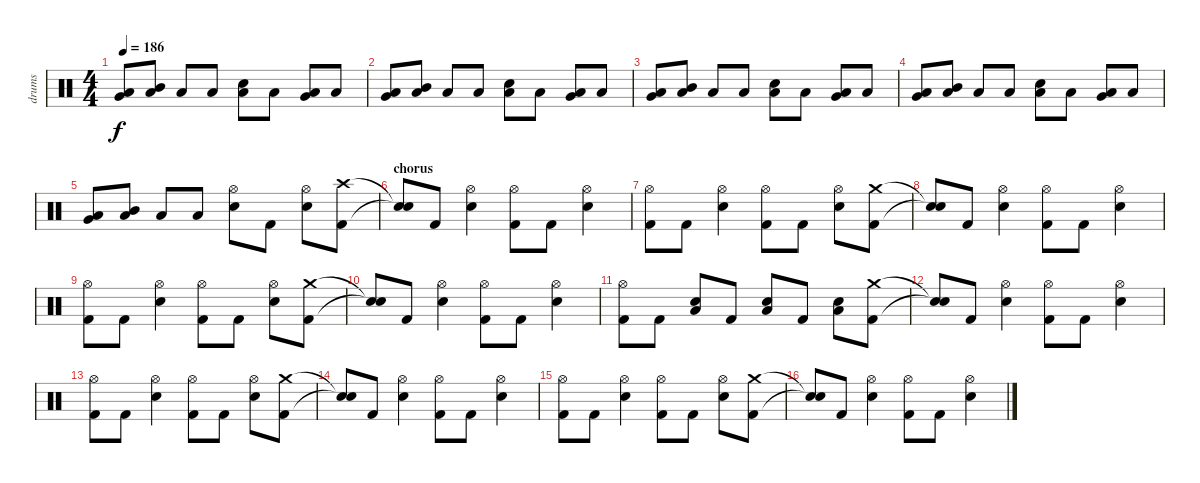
\track ("drums" "drums") {instrument percussion}
\staff {score}
\articulation defaults
\ts (4 4)
\tempo 186
\clef neutral
\ks c
("Low Tom (hit)" "Very Low Tom (hit)").8{dy f} ("Mid Tom (hit)" "Low Tom (hit)").8 "Low Tom (hit)".8 "Low Floor Tom (hit)".8 ("Low Tom (hit)" "Electric Snare (hit)").8 "Low Floor Tom (hit)".8 ("Low Tom (hit)" "Very Low Tom (hit)").8 "Low Tom (hit)".8 |
("Low Tom (hit)" "Very Low Tom (hit)").8 ("Mid Tom (hit)" "Low Tom (hit)").8 "Low Tom (hit)".8 "Low Floor Tom (hit)".8 ("Low Tom (hit)" "Electric Snare (hit)").8 "Low Floor Tom (hit)".8 ("Low Tom (hit)" "Very Low Tom (hit)").8 "Low Tom (hit)".8 |
("Low Tom (hit)" "Very Low Tom (hit)").8 ("Mid Tom (hit)" "Low Tom (hit)").8 "Low Tom (hit)".8 "Low Floor Tom (hit)".8 ("Low Tom (hit)" "Electric Snare (hit)").8 "Low Floor Tom (hit)".8 ("Low Tom (hit)" "Very Low Tom (hit)").8 "Low Tom (hit)".8 |
("Low Tom (hit)" "Very Low Tom (hit)").8 ("Mid Tom (hit)" "Low Tom (hit)").8 "Low Tom (hit)".8 "Low Floor Tom (hit)".8 ("Low Tom (hit)" "Electric Snare (hit)").8 "Low Floor Tom (hit)".8 ("Low Tom (hit)" "Very Low Tom (hit)").8 "Low Tom (hit)".8 |
("Low Tom (hit)" "Very Low Tom (hit)").8 ("Mid Tom (hit)" "Low Tom (hit)").8 "Low Tom (hit)".8 "Low Floor Tom (hit)".8 ("Hi-Hat (open)" "Electric Snare (hit)").8 "Kick (hit) 2".8 ("Hi-Hat (open)" "Electric Snare (hit)").8 ("Crash high (hit)" "Kick (hit) 2").8 |
\section ("" "chorus")
("Snare (hit)"{t} "Snare (hit)"{t}).8 "Kick (hit) 2".8 ("Hi-Hat (open)" "Electric Snare (hit)").4 ("Hi-Hat (open)" "Kick (hit) 2").8 "Kick (hit) 2".8 ("Hi-Hat (open)" "Electric Snare (hit)").4 |
("Hi-Hat (open)" "Kick (hit) 2").8 "Kick (hit) 2".8 ("Hi-Hat (open)" "Electric Snare (hit)").4 ("Hi-Hat (open)" "Kick (hit) 2").8 "Kick (hit) 2".8 ("Hi-Hat (open)" "Electric Snare (hit)").8 ("Crash medium (hit)" "Kick (hit) 2").8 |
("Snare (hit)"{t} "Snare (hit)"{t}).8 "Kick (hit) 2".8 ("Hi-Hat (open)" "Electric Snare (hit)").4 ("Hi-Hat (open)" "Kick (hit) 2").8 "Kick (hit) 2".8 ("Hi-Hat (open)" "Electric Snare (hit)").4 |
("Hi-Hat (open)" "Kick (hit) 2").8 "Kick (hit) 2".8 ("Hi-Hat (open)" "Electric Snare (hit)").4 ("Hi-Hat (open)" "Kick (hit) 2").8 "Kick (hit) 2".8 ("Hi-Hat (open)" "Electric Snare (hit)").8 ("Crash medium (hit)" "Kick (hit) 2").8 |
("Snare (hit)"{t} "Snare (hit)"{t}).8 "Kick (hit) 2".8 ("Hi-Hat (open)" "Electric Snare (hit)").4 ("Hi-Hat (open)" "Kick (hit) 2").8 "Kick (hit) 2".8 ("Hi-Hat (open)" "Electric Snare (hit)").4 |
("Hi-Hat (open)" "Kick (hit) 2").8 "Kick (hit) 2".8 ("Low Floor Tom (hit)" "Electric Snare (hit)").8 "Kick (hit) 2".8 ("Low Floor Tom (hit)" "Electric Snare (hit)").8 "Kick (hit) 2".8 ("Low Floor Tom (hit)" "Electric Snare (hit)").8 ("Crash medium (hit)" "Kick (hit) 2").8 |
("Snare (hit)"{t} "Snare (hit)"{t}).8 "Kick (hit) 2".8 ("Hi-Hat (open)" "Electric Snare (hit)").4 ("Hi-Hat (open)" "Kick (hit) 2").8 "Kick (hit) 2".8 ("Hi-Hat (open)" "Electric Snare (hit)").4 |
("Hi-Hat (open)" "Kick (hit) 2").8 "Kick (hit) 2".8 ("Hi-Hat (open)" "Electric Snare (hit)").4 ("Hi-Hat (open)" "Kick (hit) 2").8 "Kick (hit) 2".8 ("Hi-Hat (open)" "Electric Snare (hit)").8 ("Crash medium (hit)" "Kick (hit) 2").8 |
("Snare (hit)"{t} "Snare (hit)"{t}).8 "Kick (hit) 2".8 ("Hi-Hat (open)" "Electric Snare (hit)").4 ("Hi-Hat (open)" "Kick (hit) 2").8 "Kick (hit) 2".8 ("Hi-Hat (open)" "Electric Snare (hit)").4 |
("Hi-Hat (open)" "Kick (hit) 2").8 "Kick (hit) 2".8 ("Hi-Hat (open)" "Electric Snare (hit)").4 ("Hi-Hat (open)" "Kick (hit) 2").8 "Kick (hit) 2".8 ("Hi-Hat (open)" "Electric Snare (hit)").8 ("Crash medium (hit)" "Kick (hit) 2").8 |
("Snare (hit)"{t} "Snare (hit)"{t}).8 "Kick (hit) 2".8 ("Hi-Hat (open)" "Electric Snare (hit)").4 ("Hi-Hat (open)" "Kick (hit) 2").8 "Kick (hit) 2".8 ("Hi-Hat (open)" "Electric Snare (hit)").4
